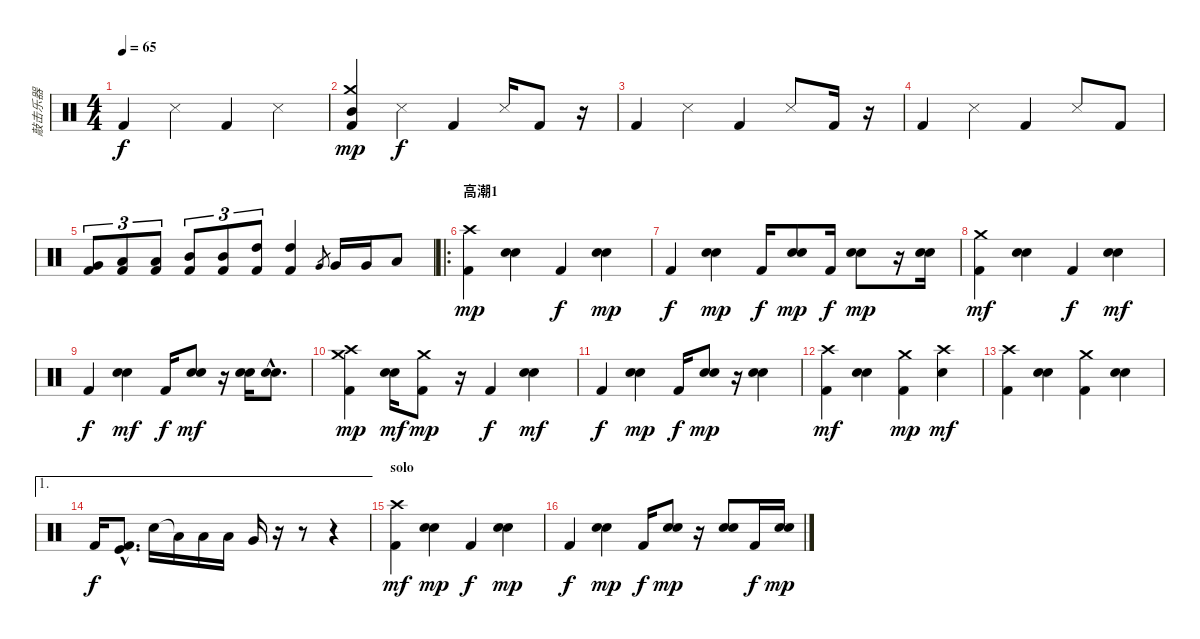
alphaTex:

\track ("敲击乐器" "敲击乐器") {instrument percussion}
\staff {score}
\articulation defaults
\ts (4 4)
\tempo 65
\clef neutral
\ks c "Kick (hit) 2".4{dy f} "Snare (side stick) 3".4 "Kick (hit) 2".4 "Snare (side stick) 3".4
|
("Crash medium (hit)" "Kick (hit) 2" "Mid Tom (hit)").4{dy mp} "Snare (side stick) 3".4{dy f} "Kick (hit) 2".4 "Snare (side stick) 3".16 "Kick (hit) 2".8 r.16 |
"Kick (hit) 2".4 "Snare (side stick) 3".4 "Kick (hit) 2".4 "Snare (side stick) 3".8 "Kick (hit) 2".16 r.16 |
"Kick (hit) 2".4 "Snare (side stick) 3".4 "Kick (hit) 2".4 "Snare (side stick) 3".8 "Kick (hit) 2".8 |
("Kick (hit) 2" "Very Low Tom (hit)").8{tu (3 2)} ("Kick (hit) 2" "Low Tom (hit)").8{tu (3 2)} ("Kick (hit) 2" "Low Tom (hit)").8{tu (3 2)} ("Kick (hit) 2" "Mid Tom (hit)").8{tu (3 2)} ("Kick (hit) 2" "Mid Tom (hit)").8{tu (3 2)} ("Kick (hit) 2" "High Tom (hit)").8{tu (3 2)} ("Kick (hit) 2" "High Tom (hit)").4 "Very Low Tom (hit)".8{gr} "Very Low Tom (hit)".16 "Very Low Tom (hit)".16 "Low Tom (hit)".8 |
\ro
\section ("" "高潮1")
("Kick (hit) 2" "Crash high (hit)").4{dy mp} ("Snare (hit) 2" "Electric Snare (hit)").4 "Kick (hit) 2".4{dy f} ("Snare (hit) 2" "Electric Snare (hit)").4{dy mp} |
"Kick (hit) 2".4{dy f} ("Electric Snare (hit)" "Snare (hit) 2").4{dy mp} "Kick (hit) 2".16{dy f} ("Electric Snare (hit)" "Snare (hit) 2").8{dy mp} "Kick (hit) 2".16{dy f} ("Electric Snare (hit)" "Snare (hit) 2").8{dy mp} r.16 ("Electric Snare (hit)" "Snare (hit) 2").16 |
("Crash medium (hit)" "Kick (hit) 2").4{dy mf} ("Electric Snare (hit)" "Snare (hit) 2").4 "Kick (hit) 2".4{dy f} ("Electric Snare (hit)" "Snare (hit) 2").4{dy mf} |
"Kick (hit) 2".4{dy f} ("Electric Snare (hit)" "Snare (hit) 2").4{dy mf} "Kick (hit) 2".16{dy f} ("Electric Snare (hit)" "Snare (hit) 2").8{dy mf} r.16 ("Electric Snare (hit)" "Snare (hit) 2").16 ("Electric Snare (hit)"{hac} "Snare (hit) 2"{hac}).8{d} |
("Crash high (hit)" "Crash medium (hit)" "Kick (hit) 2").4{dy mp} ("Electric Snare (hit)" "Snare (hit) 2").16{dy mf} ("Crash medium (hit)" "Kick (hit) 2").8{dy mp} r.16 "Kick (hit) 2".4{dy f} ("Electric Snare (hit)" "Snare (hit) 2").4{dy mf} |
"Kick (hit) 2".4{dy f} ("Electric Snare (hit)" "Snare (hit) 2").4{dy mp} "Kick (hit) 2".16{dy f} ("Electric Snare (hit)" "Snare (hit) 2").8{dy mp} r.16 ("Electric Snare (hit)" "Snare (hit) 2").4 |
("Crash high (hit)" "Kick (hit) 2").4{dy mf} ("Electric Snare (hit)" "Snare (hit) 2").4 ("Crash medium (hit)" "Kick (hit) 2").4{dy mp} ("Crash high (hit)" "Snare (hit) 2").4{dy mf} |
("Crash high (hit)" "Kick (hit) 2").4 ("Electric Snare (hit)" "Snare (hit) 2").4 ("Crash medium (hit)" "Kick (hit) 2").4 ("Electric Snare (hit)" "Snare (hit) 2").4 |
\ae 1 "Kick (hit) 2".16{dy f}
("Kick (hit) 2"{hac} "Kick (hit)"{hac}).8{d} "Snare (hit) 2".16 "Low Tom (hit)"{t}.16 "Low Tom (hit)".16 "Low Tom (hit)".16 "Very Low Tom (hit)".16 r.16 r.8 r.4 |
\section ("" "solo")
("Crash high (hit)" "Kick (hit) 2").4{dy mf} ("Electric Snare (hit)" "Snare (hit) 2").4{dy mp} "Kick (hit) 2".4{dy f} ("Electric Snare (hit)" "Snare (hit) 2").4{dy mp} |
"Kick (hit) 2".4{dy f} ("Electric Snare (hit)" "Snare (hit) 2").4{dy mp} "Kick (hit) 2".16{dy f} ("Electric Snare (hit)" "Snare (hit) 2").8{dy mp} r.16 ("Electric Snare (hit)" "Snare (hit) 2").8 "Kick (hit) 2".16{dy f} ("Electric Snare (hit)" "Snare (hit) 2").16{dy mp}
